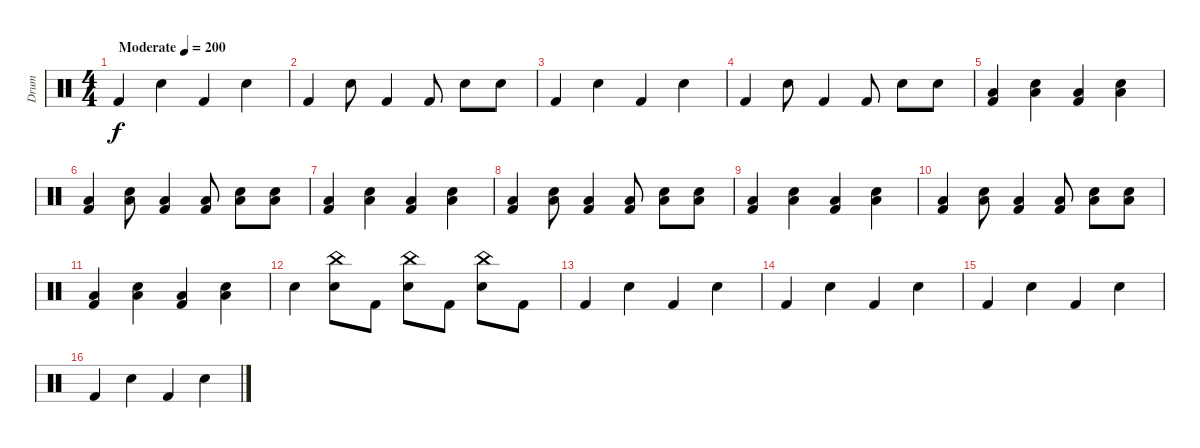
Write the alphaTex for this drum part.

\track ("Drum" "Drum") {instrument percussion}
\staff {score}
\articulation defaults
\ts (4 4)
\tempo (200 "Moderate")
\clef neutral
\ks c "Kick (hit) 2".4{dy f} "Electric Snare (hit)".4 "Kick (hit) 2".4 "Electric Snare (hit)".4
|
"Kick (hit) 2".4 "Electric Snare (hit)".8 "Kick (hit) 2".4 "Kick (hit) 2".8 "Electric Snare (hit)".8 "Electric Snare (hit)".8 |
"Kick (hit) 2".4 "Electric Snare (hit)".4 "Kick (hit) 2".4 "Electric Snare (hit)".4 |
"Kick (hit) 2".4 "Electric Snare (hit)".8 "Kick (hit) 2".4 "Kick (hit) 2".8 "Electric Snare (hit)".8 "Electric Snare (hit)".8 |
("Low Floor Tom (hit)" "Kick (hit) 2").4 ("Low Floor Tom (hit)" "Electric Snare (hit)").4 ("Low Floor Tom (hit)" "Kick (hit) 2").4 ("Low Floor Tom (hit)" "Electric Snare (hit)").4 |
("Low Floor Tom (hit)" "Kick (hit) 2").4 ("Low Floor Tom (hit)" "Electric Snare (hit)").8 ("Low Floor Tom (hit)" "Kick (hit) 2").4 ("Low Floor Tom (hit)" "Kick (hit) 2").8 ("Low Floor Tom (hit)" "Electric Snare (hit)").8 ("Low Floor Tom (hit)" "Electric Snare (hit)").8 |
("Low Floor Tom (hit)" "Kick (hit) 2").4 ("Low Floor Tom (hit)" "Electric Snare (hit)").4 ("Low Floor Tom (hit)" "Kick (hit) 2").4 ("Low Floor Tom (hit)" "Electric Snare (hit)").4 |
("Low Floor Tom (hit)" "Kick (hit) 2").4 ("Low Floor Tom (hit)" "Electric Snare (hit)").8 ("Low Floor Tom (hit)" "Kick (hit) 2").4 ("Low Floor Tom (hit)" "Kick (hit) 2").8 ("Low Floor Tom (hit)" "Electric Snare (hit)").8 ("Low Floor Tom (hit)" "Electric Snare (hit)").8 |
("Low Floor Tom (hit)" "Kick (hit) 2").4 ("Low Floor Tom (hit)" "Electric Snare (hit)").4 ("Low Floor Tom (hit)" "Kick (hit) 2").4 ("Low Floor Tom (hit)" "Electric Snare (hit)").4 |
("Low Floor Tom (hit)" "Kick (hit) 2").4 ("Low Floor Tom (hit)" "Electric Snare (hit)").8 ("Low Floor Tom (hit)" "Kick (hit) 2").4 ("Low Floor Tom (hit)" "Kick (hit) 2").8 ("Low Floor Tom (hit)" "Electric Snare (hit)").8 ("Low Floor Tom (hit)" "Electric Snare (hit)").8 |
("Low Floor Tom (hit)" "Kick (hit) 2").4 ("Low Floor Tom (hit)" "Electric Snare (hit)").4 ("Low Floor Tom (hit)" "Kick (hit) 2").4 ("Low Floor Tom (hit)" "Electric Snare (hit)").4 |
"Electric Snare (hit)".4 ("China (hit)" "Electric Snare (hit)").8 "Kick (hit) 2".8 ("China (hit)" "Electric Snare (hit)").8 "Kick (hit) 2".8 ("China (hit)" "Electric Snare (hit)").8 "Kick (hit) 2".8 |
"Kick (hit) 2".4 "Electric Snare (hit)".4 "Kick (hit) 2".4 "Electric Snare (hit)".4 |
"Kick (hit) 2".4 "Electric Snare (hit)".4 "Kick (hit) 2".4 "Electric Snare (hit)".4 |
"Kick (hit) 2".4 "Electric Snare (hit)".4 "Kick (hit) 2".4 "Electric Snare (hit)".4 |
"Kick (hit) 2".4 "Electric Snare (hit)".4 "Kick (hit) 2".4 "Electric Snare (hit)".4
